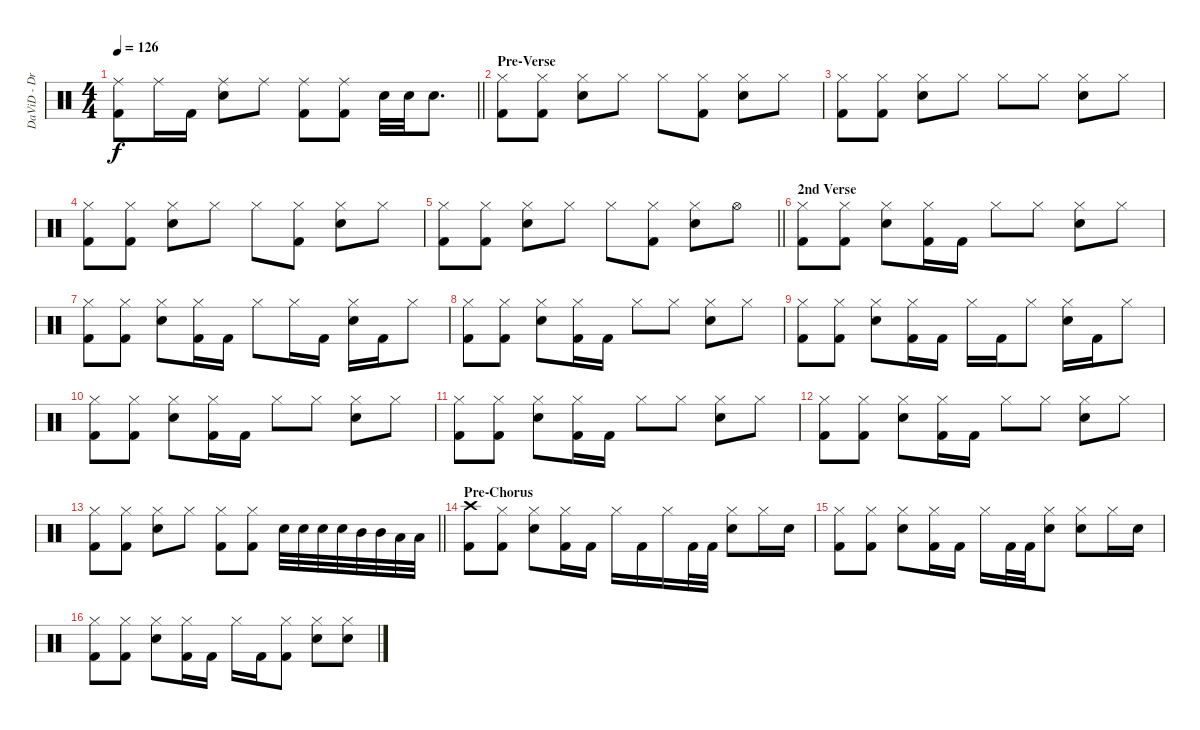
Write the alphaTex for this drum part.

\track ("DaViD - DruMzZ" "DaViD - Dr") {instrument percussion}
\staff {score}
\articulation defaults
\ts (4 4)
\tempo 126
\clef neutral
\barLineRight lightlight
\ks c
("Ride (middle)" "Kick (hit) 2").8{dy f} "Ride (middle)".16 "Kick (hit) 2".16 ("Ride (middle)" "Snare (hit) 2").8 "Ride (middle)".8 ("Ride (middle)" "Kick (hit) 2").8 ("Ride (middle)" "Kick (hit) 2").8 "Snare (hit) 2".32 "Snare (hit) 2".32 "Snare (hit) 2".8{d} |
\section ("" "Pre-Verse")
("Hi-Hat (closed)" "Kick (hit) 2").8 ("Hi-Hat (closed)" "Kick (hit) 2").8 ("Hi-Hat (closed)" "Snare (hit) 2").8 "Hi-Hat (closed)".8 "Hi-Hat (closed)".8 ("Hi-Hat (closed)" "Kick (hit) 2").8 ("Hi-Hat (closed)" "Snare (hit) 2").8 "Hi-Hat (closed)".8 |
("Hi-Hat (closed)" "Kick (hit) 2").8 ("Hi-Hat (closed)" "Kick (hit) 2").8 ("Hi-Hat (closed)" "Snare (hit) 2").8 "Hi-Hat (closed)".8 "Hi-Hat (closed)".8 "Hi-Hat (closed)".8 ("Hi-Hat (closed)" "Snare (hit) 2").8 "Hi-Hat (closed)".8 |
("Hi-Hat (closed)" "Kick (hit) 2").8 ("Hi-Hat (closed)" "Kick (hit) 2").8 ("Hi-Hat (closed)" "Snare (hit) 2").8 "Hi-Hat (closed)".8 "Hi-Hat (closed)".8 ("Hi-Hat (closed)" "Kick (hit) 2").8 ("Hi-Hat (closed)" "Snare (hit) 2").8 "Hi-Hat (closed)".8 |
\barLineRight lightlight
("Hi-Hat (closed)" "Kick (hit) 2").8 ("Hi-Hat (closed)" "Kick (hit) 2").8 ("Hi-Hat (closed)" "Snare (hit) 2").8 "Hi-Hat (closed)".8 "Hi-Hat (closed)".8 ("Hi-Hat (closed)" "Kick (hit) 2").8 ("Hi-Hat (closed)" "Snare (hit) 2").8 "Hi-Hat (open)".8 |
\section ("" "2nd Verse")
("Hi-Hat (closed)" "Kick (hit) 2").8 ("Hi-Hat (closed)" "Kick (hit) 2").8 ("Hi-Hat (closed)" "Snare (hit) 2").8 ("Hi-Hat (closed)" "Kick (hit) 2").16 "Kick (hit) 2".16 "Hi-Hat (closed)".8 "Hi-Hat (closed)".8 ("Hi-Hat (closed)" "Snare (hit) 2").8 "Hi-Hat (closed)".8 |
("Hi-Hat (closed)" "Kick (hit) 2").8 ("Hi-Hat (closed)" "Kick (hit) 2").8 ("Hi-Hat (closed)" "Snare (hit) 2").8 ("Hi-Hat (closed)" "Kick (hit) 2").16 "Kick (hit) 2".16 "Hi-Hat (closed)".8 "Hi-Hat (closed)".16 "Kick (hit) 2".16 ("Hi-Hat (closed)" "Snare (hit) 2").16 "Kick (hit) 2".16 "Hi-Hat (closed)".8 |
("Hi-Hat (closed)" "Kick (hit) 2").8 ("Hi-Hat (closed)" "Kick (hit) 2").8 ("Hi-Hat (closed)" "Snare (hit) 2").8 ("Hi-Hat (closed)" "Kick (hit) 2").16 "Kick (hit) 2".16 "Hi-Hat (closed)".8 "Hi-Hat (closed)".8 ("Hi-Hat (closed)" "Snare (hit) 2").8 "Hi-Hat (closed)".8 |
("Hi-Hat (closed)" "Kick (hit) 2").8 ("Hi-Hat (closed)" "Kick (hit) 2").8 ("Hi-Hat (closed)" "Snare (hit) 2").8 ("Hi-Hat (closed)" "Kick (hit) 2").16 "Kick (hit) 2".16 "Hi-Hat (closed)".16 "Kick (hit) 2".16 "Hi-Hat (closed)".8 ("Hi-Hat (closed)" "Snare (hit) 2").16 "Kick (hit) 2".16 "Hi-Hat (closed)".8 |
("Hi-Hat (closed)" "Kick (hit) 2").8 ("Hi-Hat (closed)" "Kick (hit) 2").8 ("Hi-Hat (closed)" "Snare (hit) 2").8 ("Hi-Hat (closed)" "Kick (hit) 2").16 "Kick (hit) 2".16 "Hi-Hat (closed)".8 "Hi-Hat (closed)".8 ("Hi-Hat (closed)" "Snare (hit) 2").8 "Hi-Hat (closed)".8 |
("Hi-Hat (closed)" "Kick (hit) 2").8 ("Hi-Hat (closed)" "Kick (hit) 2").8 ("Hi-Hat (closed)" "Snare (hit) 2").8 ("Hi-Hat (closed)" "Kick (hit) 2").16 "Kick (hit) 2".16 "Hi-Hat (closed)".8 "Hi-Hat (closed)".8 ("Hi-Hat (closed)" "Snare (hit) 2").8 "Hi-Hat (closed)".8 |
("Hi-Hat (closed)" "Kick (hit) 2").8 ("Hi-Hat (closed)" "Kick (hit) 2").8 ("Hi-Hat (closed)" "Snare (hit) 2").8 ("Hi-Hat (closed)" "Kick (hit) 2").16 "Kick (hit) 2".16 "Hi-Hat (closed)".8 "Hi-Hat (closed)".8 ("Hi-Hat (closed)" "Snare (hit) 2").8 "Hi-Hat (closed)".8 |
\barLineRight lightlight
("Hi-Hat (closed)" "Kick (hit) 2").8 ("Hi-Hat (closed)" "Kick (hit) 2").8 ("Hi-Hat (closed)" "Snare (hit) 2").8 "Hi-Hat (closed)".8 ("Hi-Hat (closed)" "Kick (hit) 2").8 ("Hi-Hat (closed)" "Kick (hit) 2").8 "Snare (hit) 2".32 "Snare (hit) 2".32 "Snare (hit) 2".32 "Snare (hit) 2".32 "Mid Tom (hit)".32 "Mid Tom (hit)".32 "Low Tom (hit)".32 "Low Tom (hit)".32 |
\section ("" "Pre-Chorus")
("Crash high (hit)" "Kick (hit) 2").8 ("Hi-Hat (closed)" "Kick (hit) 2").8 ("Hi-Hat (closed)" "Snare (hit) 2").8 ("Hi-Hat (closed)" "Kick (hit) 2").16 "Kick (hit) 2".16 "Hi-Hat (closed)".16 "Kick (hit) 2".16 "Hi-Hat (closed)".16 "Kick (hit) 2".32 "Kick (hit) 2".32 ("Hi-Hat (closed)" "Snare (hit) 2").8 "Hi-Hat (closed)".16 "Snare (hit) 2".16 |
("Hi-Hat (closed)" "Kick (hit) 2").8 ("Hi-Hat (closed)" "Kick (hit) 2").8 ("Hi-Hat (closed)" "Snare (hit) 2").8 ("Hi-Hat (closed)" "Kick (hit) 2").16 "Kick (hit) 2".16 "Hi-Hat (closed)".16 "Kick (hit) 2".32 "Kick (hit) 2".32 ("Hi-Hat (closed)" "Snare (hit) 2").8 ("Hi-Hat (closed)" "Snare (hit) 2").8 "Hi-Hat (closed)".16 "Snare (hit) 2".16 |
("Hi-Hat (closed)" "Kick (hit) 2").8 ("Hi-Hat (closed)" "Kick (hit) 2").8 ("Hi-Hat (closed)" "Snare (hit) 2").8 ("Hi-Hat (closed)" "Kick (hit) 2").16 "Kick (hit) 2".16 "Hi-Hat (closed)".16 "Kick (hit) 2".16 ("Hi-Hat (closed)" "Kick (hit) 2").8 ("Hi-Hat (closed)" "Snare (hit) 2").8 ("Hi-Hat (closed)" "Snare (hit) 2").8
